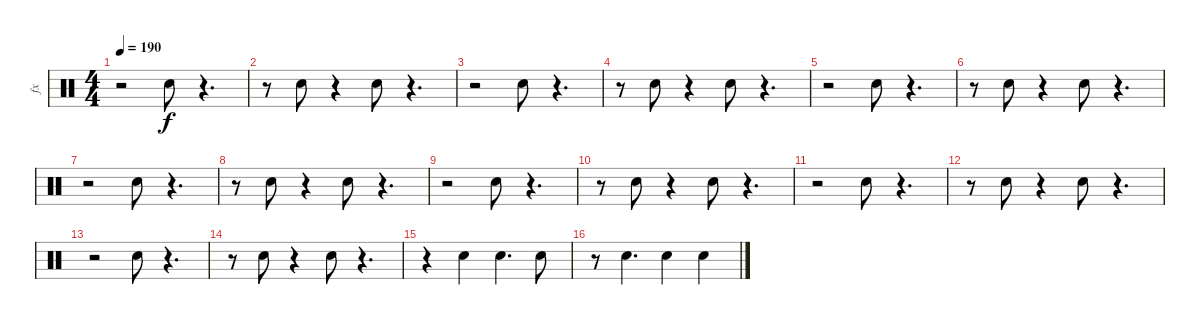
\track ("fx" "fx") {instrument percussion}
\staff {score}
\articulation defaults
\ts (4 4)
\tempo 190
\clef neutral
\ks c
r.2{dy f} "Snare (hit) 2".8 r.4{d} |
r.8 "Snare (hit) 2".8 r.4 "Snare (hit) 2".8 r.4{d} |
r.2 "Snare (hit) 2".8 r.4{d} |
r.8 "Snare (hit) 2".8 r.4 "Snare (hit) 2".8 r.4{d} |
r.2 "Snare (hit) 2".8 r.4{d} |
r.8 "Snare (hit) 2".8 r.4 "Snare (hit) 2".8 r.4{d} |
r.2 "Snare (hit) 2".8 r.4{d} |
r.8 "Snare (hit) 2".8 r.4 "Snare (hit) 2".8 r.4{d} |
r.2 "Snare (hit) 2".8 r.4{d} |
r.8 "Snare (hit) 2".8 r.4 "Snare (hit) 2".8 r.4{d} |
r.2 "Snare (hit) 2".8 r.4{d} |
r.8 "Snare (hit) 2".8 r.4 "Snare (hit) 2".8 r.4{d} |
r.2 "Snare (hit) 2".8 r.4{d} |
r.8 "Snare (hit) 2".8 r.4 "Snare (hit) 2".8 r.4{d} |
r.4 "Snare (hit) 2".4 "Snare (hit) 2".4{d} "Snare (hit) 2".8 |
r.8 "Snare (hit) 2".4{d} "Snare (hit) 2".4 "Snare (hit) 2".4
